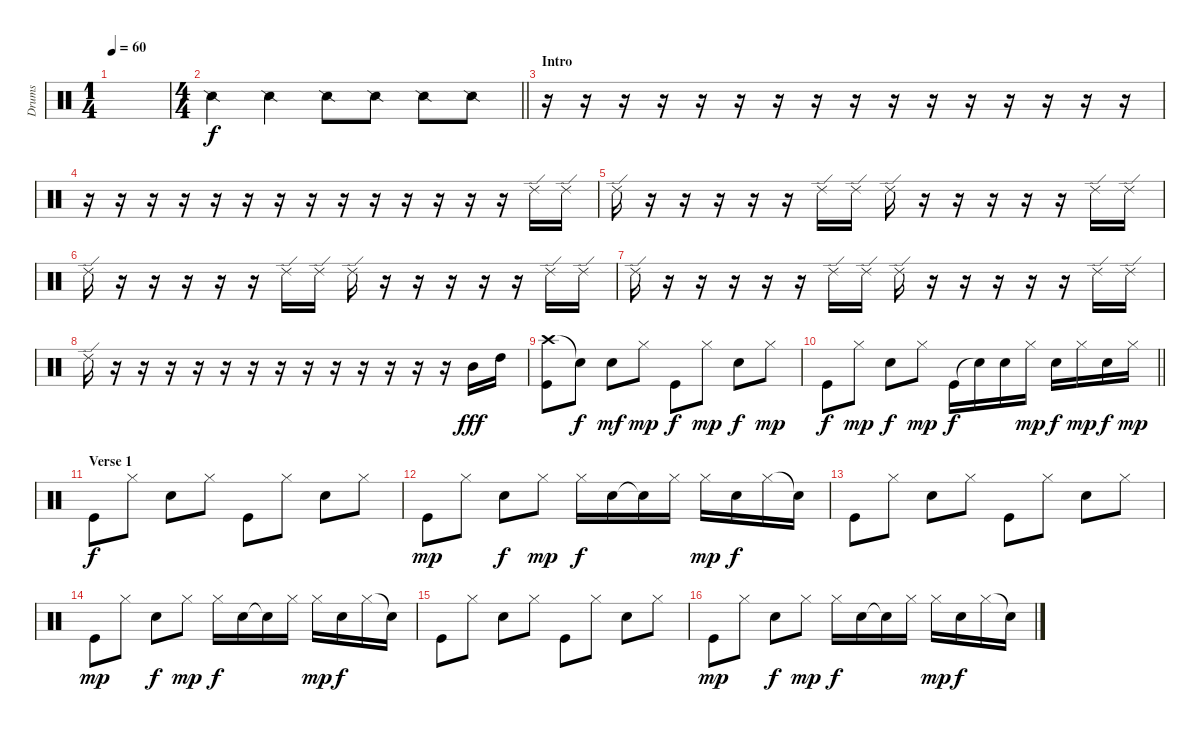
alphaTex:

\track ("Drums" "Drums") {instrument percussion}
\staff {score}
\articulation defaults
\ts (1 4)
\tempo 60
\clef neutral
\ks c
|
\ts (4 4)
\barLineRight lightlight "Snare (side stick) 2".4 "Snare (side stick) 2".4 "Snare (side stick) 2".8 "Snare (side stick) 2".8 "Snare (side stick) 2".8 "Snare (side stick) 2".8
|
\section ("" "Intro")
r.16 r.16 r.16 r.16 r.16 r.16 r.16 r.16 r.16 r.16 r.16 r.16 r.16 r.16 r.16 r.16 |
r.16 r.16 r.16 r.16 r.16 r.16 r.16 r.16 r.16 r.16 r.16 r.16 r.16 r.16 "Ride (edge) 2".16 "Ride (edge) 2".16 |
"Ride (edge) 2".16 r.16 r.16 r.16 r.16 r.16 "Ride (edge) 2".16 "Ride (edge) 2".16 "Ride (edge) 2".16 r.16 r.16 r.16 r.16 r.16 "Ride (edge) 2".16 "Ride (edge) 2".16 |
"Ride (edge) 2".16 r.16 r.16 r.16 r.16 r.16 "Ride (edge) 2".16 "Ride (edge) 2".16 "Ride (edge) 2".16 r.16 r.16 r.16 r.16 r.16 "Ride (edge) 2".16 "Ride (edge) 2".16 |
"Ride (edge) 2".16 r.16 r.16 r.16 r.16 r.16 "Ride (edge) 2".16 "Ride (edge) 2".16 "Ride (edge) 2".16 r.16 r.16 r.16 r.16 r.16 "Ride (edge) 2".16 "Ride (edge) 2".16 |
"Ride (edge) 2".16 r.16 r.16 r.16 r.16 r.16 r.16 r.16 r.16 r.16 r.16 r.16 r.16 r.16 "Mid Tom (hit)".16{dy fff} "High Tom (hit)".16 |
("Crash high (hit)" "Kick (hit)").8 "Snare (hit)"{t}.8{dy f} "Snare (hit) 2".8{dy mf} "Hi-Hat (closed)".8{dy mp} "Kick (hit)".8{dy f} "Hi-Hat (closed)".8{dy mp} "Snare (hit) 2".8{dy f} "Hi-Hat (closed)".8{dy mp} |
\barLineRight lightlight "Kick (hit)".8{dy f} "Hi-Hat (closed)".8{dy mp} "Snare (hit) 2".8{dy f} "Hi-Hat (closed)".8{dy mp} "Kick (hit)".16{dy f} "Snare (hit)"{t}.16 "Snare (hit) 2".16 "Hi-Hat (closed)".16{dy mp} "Snare (hit) 2".16{dy f} "Hi-Hat (closed)".16{dy mp} "Snare (hit) 2".16{dy f} "Hi-Hat (closed)".16{dy mp}
|
\section ("" "Verse 1")
"Kick (hit)".8{dy f} "Hi-Hat (closed)".8 "Snare (hit) 2".8 "Hi-Hat (closed)".8 "Kick (hit)".8 "Hi-Hat (closed)".8 "Snare (hit) 2".8 "Hi-Hat (closed)".8 |
"Kick (hit)".8{dy mp} "Hi-Hat (closed)".8 "Snare (hit) 2".8{dy f} "Hi-Hat (closed)".8{dy mp} "Hi-Hat (closed)".16{dy f} "Snare (hit) 2".16 "Snare (hit)"{t}.16 "Hi-Hat (closed)".16 "Hi-Hat (closed)".16{dy mp} "Snare (hit) 2".16{dy f} "Hi-Hat (closed)".16 "Snare (hit)"{t}.16 |
"Kick (hit)".8 "Hi-Hat (closed)".8 "Snare (hit) 2".8 "Hi-Hat (closed)".8 "Kick (hit)".8 "Hi-Hat (closed)".8 "Snare (hit) 2".8 "Hi-Hat (closed)".8 |
"Kick (hit)".8{dy mp} "Hi-Hat (closed)".8 "Snare (hit) 2".8{dy f} "Hi-Hat (closed)".8{dy mp} "Hi-Hat (closed)".16{dy f} "Snare (hit) 2".16 "Snare (hit)"{t}.16 "Hi-Hat (closed)".16 "Hi-Hat (closed)".16{dy mp} "Snare (hit) 2".16{dy f} "Hi-Hat (closed)".16 "Snare (hit)"{t}.16 |
"Kick (hit)".8 "Hi-Hat (closed)".8 "Snare (hit) 2".8 "Hi-Hat (closed)".8 "Kick (hit)".8 "Hi-Hat (closed)".8 "Snare (hit) 2".8 "Hi-Hat (closed)".8 |
"Kick (hit)".8{dy mp} "Hi-Hat (closed)".8 "Snare (hit) 2".8{dy f} "Hi-Hat (closed)".8{dy mp} "Hi-Hat (closed)".16{dy f} "Snare (hit) 2".16 "Snare (hit)"{t}.16 "Hi-Hat (closed)".16 "Hi-Hat (closed)".16{dy mp} "Snare (hit) 2".16{dy f} "Hi-Hat (closed)".16 "Snare (hit)"{t}.16
